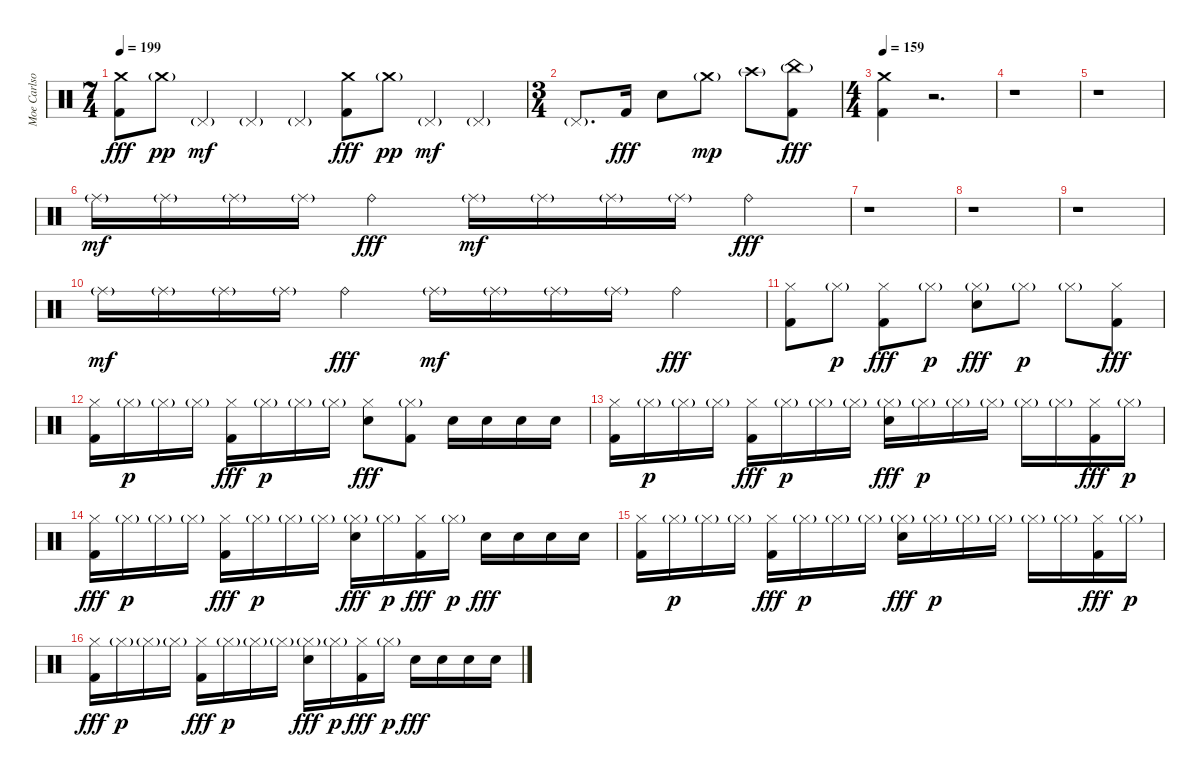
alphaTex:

\track ("Moe Carlson" "Moe Carlso") {instrument percussion}
\staff {score}
\articulation defaults
\ts (7 4)
\tempo 199
\clef neutral
\ks c
("Crash medium (hit)" "Kick (hit) 2").8{dy fff} "Crash medium (hit)"{g}.8{dy pp} "Pedal Hi-Hat (hit)"{g}.4{dy mf} "Pedal Hi-Hat (hit)"{g}.4 "Pedal Hi-Hat (hit)"{g}.4 ("Crash medium (hit)" "Kick (hit) 2").8{dy fff} "Crash medium (hit)"{g}.8{dy pp} "Pedal Hi-Hat (hit)"{g}.4{dy mf} "Pedal Hi-Hat (hit)"{g}.4 |
\ts (3 4)
"Pedal Hi-Hat (hit)"{g}.8{d} "Kick (hit) 2".16{dy fff} "Electric Snare (hit)".8 "Crash medium (hit)"{g}.8{dy mp} "Crash high (hit)"{g}.8 ("China (hit)"{g} "Kick (hit) 2").8{dy fff} |
\ts (4 4)
\tempo 159
("Crash medium (hit)" "Kick (hit) 2").4 r.2{d} |
r.1 |
r.1 |
"Ride (middle)"{g}.16{dy mf} "Ride (middle)"{g}.16 "Ride (middle)"{g}.16 "Ride (middle)"{g}.16 "Ride (bell)".4{dy fff} "Ride (middle)"{g}.16{dy mf} "Ride (middle)"{g}.16 "Ride (middle)"{g}.16 "Ride (middle)"{g}.16 "Ride (bell)".4{dy fff} |
r.1 |
r.1 |
r.1 |
"Ride (middle)"{g}.16{dy mf} "Ride (middle)"{g}.16 "Ride (middle)"{g}.16 "Ride (middle)"{g}.16 "Ride (bell)".4{dy fff} "Ride (middle)"{g}.16{dy mf} "Ride (middle)"{g}.16 "Ride (middle)"{g}.16 "Ride (middle)"{g}.16 "Ride (bell)".4{dy fff} |
("Hi-Hat (closed)" "Kick (hit) 2").8 "Hi-Hat (closed)"{g}.8{dy p} ("Hi-Hat (closed)" "Kick (hit) 2").8{dy fff} "Hi-Hat (closed)"{g}.8{dy p} ("Hi-Hat (closed)"{g} "Electric Snare (hit)").8{dy fff} "Hi-Hat (closed)"{g}.8{dy p} "Hi-Hat (closed)"{g}.8 ("Hi-Hat (closed)" "Kick (hit) 2").8{dy fff} |
("Hi-Hat (closed)" "Kick (hit) 2").16 "Hi-Hat (closed)"{g}.16{dy p} "Hi-Hat (closed)"{g}.16 "Hi-Hat (closed)"{g}.16 ("Hi-Hat (closed)" "Kick (hit) 2").16{dy fff} "Hi-Hat (closed)"{g}.16{dy p} "Hi-Hat (closed)"{g}.16 "Hi-Hat (closed)"{g}.16 ("Hi-Hat (closed)" "Electric Snare (hit)").8{dy fff} ("Hi-Hat (closed)"{g} "Kick (hit) 2").8 "Electric Snare (hit)".16 "Electric Snare (hit)".16 "Electric Snare (hit)".16 "Electric Snare (hit)".16 |
("Hi-Hat (closed)" "Kick (hit) 2").16 "Hi-Hat (closed)"{g}.16{dy p} "Hi-Hat (closed)"{g}.16 "Hi-Hat (closed)"{g}.16 ("Hi-Hat (closed)" "Kick (hit) 2").16{dy fff} "Hi-Hat (closed)"{g}.16{dy p} "Hi-Hat (closed)"{g}.16 "Hi-Hat (closed)"{g}.16 ("Hi-Hat (closed)"{g} "Electric Snare (hit)").16{dy fff} "Hi-Hat (closed)"{g}.16{dy p} "Hi-Hat (closed)"{g}.16 "Hi-Hat (closed)"{g}.16 "Hi-Hat (closed)"{g}.16 "Hi-Hat (closed)"{g}.16 ("Hi-Hat (closed)" "Kick (hit) 2").16{dy fff} "Hi-Hat (closed)"{g}.16{dy p} |
("Hi-Hat (closed)" "Kick (hit) 2").16{dy fff} "Hi-Hat (closed)"{g}.16{dy p} "Hi-Hat (closed)"{g}.16 "Hi-Hat (closed)"{g}.16 ("Hi-Hat (closed)" "Kick (hit) 2").16{dy fff} "Hi-Hat (closed)"{g}.16{dy p} "Hi-Hat (closed)"{g}.16 "Hi-Hat (closed)"{g}.16 ("Hi-Hat (closed)"{g} "Electric Snare (hit)").16{dy fff} "Hi-Hat (closed)"{g}.16{dy p} ("Hi-Hat (closed)" "Kick (hit) 2").16{dy fff} "Hi-Hat (closed)"{g}.16{dy p} "Electric Snare (hit)".16{dy fff} "Electric Snare (hit)".16 "Electric Snare (hit)".16 "Electric Snare (hit)".16 |
("Hi-Hat (closed)" "Kick (hit) 2").16 "Hi-Hat (closed)"{g}.16{dy p} "Hi-Hat (closed)"{g}.16 "Hi-Hat (closed)"{g}.16 ("Hi-Hat (closed)" "Kick (hit) 2").16{dy fff} "Hi-Hat (closed)"{g}.16{dy p} "Hi-Hat (closed)"{g}.16 "Hi-Hat (closed)"{g}.16 ("Hi-Hat (closed)"{g} "Electric Snare (hit)").16{dy fff} "Hi-Hat (closed)"{g}.16{dy p} "Hi-Hat (closed)"{g}.16 "Hi-Hat (closed)"{g}.16 "Hi-Hat (closed)"{g}.16 "Hi-Hat (closed)"{g}.16 ("Hi-Hat (closed)" "Kick (hit) 2").16{dy fff} "Hi-Hat (closed)"{g}.16{dy p} |
("Hi-Hat (closed)" "Kick (hit) 2").16{dy fff} "Hi-Hat (closed)"{g}.16{dy p} "Hi-Hat (closed)"{g}.16 "Hi-Hat (closed)"{g}.16 ("Hi-Hat (closed)" "Kick (hit) 2").16{dy fff} "Hi-Hat (closed)"{g}.16{dy p} "Hi-Hat (closed)"{g}.16 "Hi-Hat (closed)"{g}.16 ("Hi-Hat (closed)"{g} "Electric Snare (hit)").16{dy fff} "Hi-Hat (closed)"{g}.16{dy p} ("Hi-Hat (closed)" "Kick (hit) 2").16{dy fff} "Hi-Hat (closed)"{g}.16{dy p} "Electric Snare (hit)".16{dy fff} "Electric Snare (hit)".16 "Electric Snare (hit)".16 "Electric Snare (hit)".16
